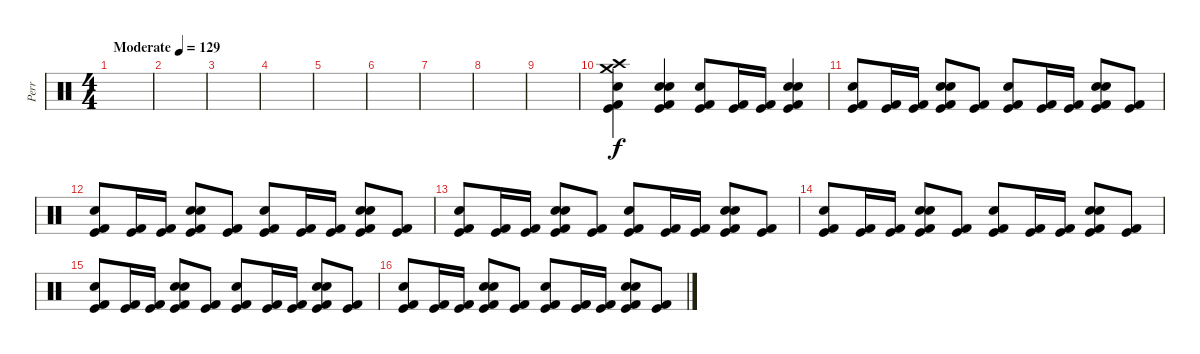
\track ("Perr" "Perr") {instrument percussion}
\staff {score}
\articulation defaults
\ts (4 4)
\tempo (129 "Moderate")
\clef neutral
\ks c
|
|
|
|
|
|
|
|
|
("Crash medium (hit)" "Kick (hit) 2" "Crash high (hit)" "Electric Snare (hit)" "Kick (hit)").4 ("Kick (hit)" "Kick (hit) 2" "Hand Clap (hit)" "Electric Snare (hit)").4 ("Kick (hit) 2" "Kick (hit)" "Electric Snare (hit)").8 ("Kick (hit)" "Kick (hit) 2").16 ("Kick (hit)" "Kick (hit) 2").16 ("Kick (hit)" "Kick (hit) 2" "Hand Clap (hit)" "Electric Snare (hit)").4 |
("Kick (hit) 2" "Kick (hit)" "Electric Snare (hit)").8 ("Kick (hit)" "Kick (hit) 2").16 ("Kick (hit)" "Kick (hit) 2").16 ("Kick (hit)" "Kick (hit) 2" "Hand Clap (hit)" "Electric Snare (hit)").8 ("Kick (hit) 2" "Kick (hit)").8 ("Kick (hit) 2" "Kick (hit)" "Electric Snare (hit)").8 ("Kick (hit)" "Kick (hit) 2").16 ("Kick (hit)" "Kick (hit) 2").16 ("Kick (hit)" "Kick (hit) 2" "Hand Clap (hit)" "Electric Snare (hit)").8 ("Kick (hit) 2" "Kick (hit)").8 |
("Kick (hit) 2" "Kick (hit)" "Electric Snare (hit)").8 ("Kick (hit)" "Kick (hit) 2").16 ("Kick (hit)" "Kick (hit) 2").16 ("Kick (hit)" "Kick (hit) 2" "Hand Clap (hit)" "Electric Snare (hit)").8 ("Kick (hit) 2" "Kick (hit)").8 ("Kick (hit) 2" "Kick (hit)" "Electric Snare (hit)").8 ("Kick (hit)" "Kick (hit) 2").16 ("Kick (hit)" "Kick (hit) 2").16 ("Kick (hit)" "Kick (hit) 2" "Hand Clap (hit)" "Electric Snare (hit)").8 ("Kick (hit) 2" "Kick (hit)").8 |
("Kick (hit) 2" "Kick (hit)" "Electric Snare (hit)").8 ("Kick (hit)" "Kick (hit) 2").16 ("Kick (hit)" "Kick (hit) 2").16 ("Kick (hit)" "Kick (hit) 2" "Hand Clap (hit)" "Electric Snare (hit)").8 ("Kick (hit) 2" "Kick (hit)").8 ("Kick (hit) 2" "Kick (hit)" "Electric Snare (hit)").8 ("Kick (hit)" "Kick (hit) 2").16 ("Kick (hit)" "Kick (hit) 2").16 ("Kick (hit)" "Kick (hit) 2" "Hand Clap (hit)" "Electric Snare (hit)").8 ("Kick (hit) 2" "Kick (hit)").8 |
("Kick (hit) 2" "Kick (hit)" "Electric Snare (hit)").8 ("Kick (hit)" "Kick (hit) 2").16 ("Kick (hit)" "Kick (hit) 2").16 ("Kick (hit)" "Kick (hit) 2" "Hand Clap (hit)" "Electric Snare (hit)").8 ("Kick (hit) 2" "Kick (hit)").8 ("Kick (hit) 2" "Kick (hit)" "Electric Snare (hit)").8 ("Kick (hit)" "Kick (hit) 2").16 ("Kick (hit)" "Kick (hit) 2").16 ("Kick (hit)" "Kick (hit) 2" "Hand Clap (hit)" "Electric Snare (hit)").8 ("Kick (hit) 2" "Kick (hit)").8 |
("Kick (hit) 2" "Kick (hit)" "Electric Snare (hit)").8 ("Kick (hit)" "Kick (hit) 2").16 ("Kick (hit)" "Kick (hit) 2").16 ("Kick (hit)" "Kick (hit) 2" "Hand Clap (hit)" "Electric Snare (hit)").8 ("Kick (hit) 2" "Kick (hit)").8 ("Kick (hit) 2" "Kick (hit)" "Electric Snare (hit)").8 ("Kick (hit)" "Kick (hit) 2").16 ("Kick (hit)" "Kick (hit) 2").16 ("Kick (hit)" "Kick (hit) 2" "Hand Clap (hit)" "Electric Snare (hit)").8 ("Kick (hit) 2" "Kick (hit)").8 |
("Kick (hit) 2" "Kick (hit)" "Electric Snare (hit)").8 ("Kick (hit)" "Kick (hit) 2").16 ("Kick (hit)" "Kick (hit) 2").16 ("Kick (hit)" "Kick (hit) 2" "Hand Clap (hit)" "Electric Snare (hit)").8 ("Kick (hit) 2" "Kick (hit)").8 ("Kick (hit) 2" "Kick (hit)" "Electric Snare (hit)").8 ("Kick (hit)" "Kick (hit) 2").16 ("Kick (hit)" "Kick (hit) 2").16 ("Kick (hit)" "Kick (hit) 2" "Hand Clap (hit)" "Electric Snare (hit)").8 ("Kick (hit) 2" "Kick (hit)").8
